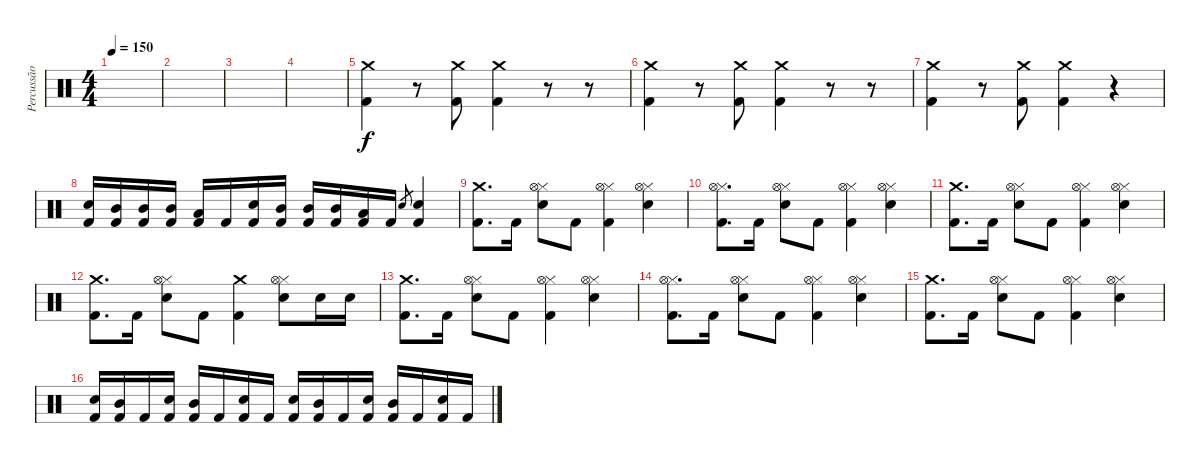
\track ("Percussão" "Percussão") {instrument percussion}
\staff {score}
\articulation defaults
\ts (4 4)
\tempo 150
\clef neutral
\ks c
|
|
|
|
("Crash medium (hit)" "Kick (hit) 2").4 r.8 ("Crash medium (hit)" "Kick (hit) 2").8 ("Crash medium (hit)" "Kick (hit) 2").4 r.8 r.8 |
("Crash medium (hit)" "Kick (hit) 2").4 r.8 ("Crash medium (hit)" "Kick (hit) 2").8 ("Crash medium (hit)" "Kick (hit) 2").4 r.8 r.8 |
("Crash medium (hit)" "Kick (hit) 2").4 r.8 ("Crash medium (hit)" "Kick (hit) 2").8 ("Crash medium (hit)" "Kick (hit) 2").4 r.4 |
("Snare (hit) 2" "Kick (hit) 2").16 ("Mid Tom (hit)" "Kick (hit) 2").16 ("Mid Tom (hit)" "Kick (hit) 2").16 ("Mid Tom (hit)" "Kick (hit) 2").16 ("Low Tom (hit)" "Kick (hit) 2").16 "Kick (hit) 2".16 ("Snare (hit) 2" "Kick (hit) 2").16 ("Mid Tom (hit)" "Kick (hit) 2").16 ("Mid Tom (hit)" "Kick (hit) 2").16 ("Mid Tom (hit)" "Kick (hit) 2").16 ("Low Tom (hit)" "Kick (hit) 2").16 "Kick (hit) 2".16 "Snare (hit) 2".8{gr} ("Snare (hit) 2" "Kick (hit) 2").4 |
("Crash medium (hit)" "Kick (hit) 2").8{d} "Kick (hit) 2".16 ("Hi-Hat (closed)" "Hi-Hat (open)" "Snare (hit) 2").8 "Kick (hit) 2".8 ("Hi-Hat (closed)" "Hi-Hat (open)" "Kick (hit) 2").4 ("Hi-Hat (closed)" "Hi-Hat (open)" "Snare (hit) 2").4 |
("Hi-Hat (closed)" "Hi-Hat (open)" "Kick (hit) 2").8{d} "Kick (hit) 2".16 ("Hi-Hat (closed)" "Hi-Hat (open)" "Snare (hit) 2").8 "Kick (hit) 2".8 ("Hi-Hat (closed)" "Hi-Hat (open)" "Kick (hit) 2").4 ("Hi-Hat (closed)" "Hi-Hat (open)" "Snare (hit) 2").4 |
("Crash medium (hit)" "Kick (hit) 2").8{d} "Kick (hit) 2".16 ("Hi-Hat (closed)" "Hi-Hat (open)" "Snare (hit) 2").8 "Kick (hit) 2".8 ("Hi-Hat (closed)" "Hi-Hat (open)" "Kick (hit) 2").4 ("Hi-Hat (closed)" "Hi-Hat (open)" "Snare (hit) 2").4 |
("Crash medium (hit)" "Kick (hit) 2").8{d} "Kick (hit) 2".16 ("Hi-Hat (closed)" "Hi-Hat (open)" "Snare (hit) 2").8 "Kick (hit) 2".8 ("Crash medium (hit)" "Kick (hit) 2").4 ("Hi-Hat (closed)" "Hi-Hat (open)" "Snare (hit) 2").8 "Snare (hit) 2".16 "Snare (hit) 2".16 |
("Crash medium (hit)" "Kick (hit) 2").8{d} "Kick (hit) 2".16 ("Hi-Hat (closed)" "Hi-Hat (open)" "Snare (hit) 2").8 "Kick (hit) 2".8 ("Hi-Hat (closed)" "Hi-Hat (open)" "Kick (hit) 2").4 ("Hi-Hat (closed)" "Hi-Hat (open)" "Snare (hit) 2").4 |
("Hi-Hat (closed)" "Hi-Hat (open)" "Kick (hit) 2").8{d} "Kick (hit) 2".16 ("Hi-Hat (closed)" "Hi-Hat (open)" "Snare (hit) 2").8 "Kick (hit) 2".8 ("Hi-Hat (closed)" "Hi-Hat (open)" "Kick (hit) 2").4 ("Hi-Hat (closed)" "Hi-Hat (open)" "Snare (hit) 2").4 |
("Crash medium (hit)" "Kick (hit) 2").8{d} "Kick (hit) 2".16 ("Hi-Hat (closed)" "Hi-Hat (open)" "Snare (hit) 2").8 "Kick (hit) 2".8 ("Hi-Hat (closed)" "Hi-Hat (open)" "Kick (hit) 2").4 ("Hi-Hat (closed)" "Hi-Hat (open)" "Snare (hit) 2").4 |
("Snare (hit) 2" "Kick (hit) 2").16 ("Mid Tom (hit)" "Kick (hit) 2").16 "Kick (hit) 2".16 ("Snare (hit) 2" "Kick (hit) 2").16 ("Mid Tom (hit)" "Kick (hit) 2").16 "Kick (hit) 2".16 ("Snare (hit) 2" "Kick (hit) 2").16 "Kick (hit) 2".16 ("Snare (hit) 2" "Kick (hit) 2").16 ("Mid Tom (hit)" "Kick (hit) 2").16 "Kick (hit) 2".16 ("Snare (hit) 2" "Kick (hit) 2").16 ("Mid Tom (hit)" "Kick (hit) 2").16 "Kick (hit) 2".16 ("Snare (hit) 2" "Kick (hit) 2").16 "Kick (hit) 2".16
